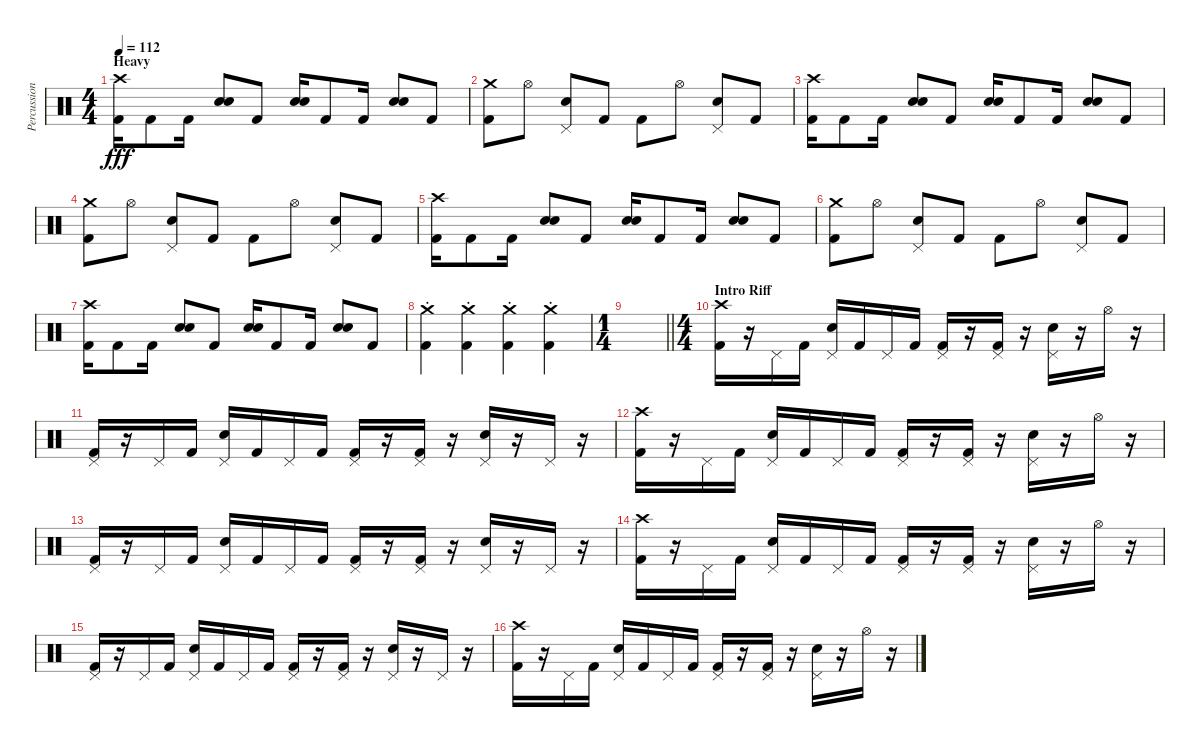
\track ("Percussion" "Percussion") {instrument percussion}
\staff {score}
\articulation defaults
\ts (4 4)
\section ("" "Heavy")
\tempo 112
\clef neutral
\ks c
("Crash high (hit)" "Kick (hit) 2").16{dy fff} "Kick (hit) 2".8 "Kick (hit) 2".16 ("Electric Snare (hit)" "Electric Snare (hit)").8 "Kick (hit) 2".8 ("Electric Snare (hit)" "Electric Snare (hit)").16 "Kick (hit) 2".8 "Kick (hit) 2".16 ("Electric Snare (hit)" "Electric Snare (hit)").8 "Kick (hit) 2".8 |
("Crash medium (hit)" "Kick (hit) 2").8 "Hi-Hat (open)".8 ("Pedal Hi-Hat (hit)" "Electric Snare (hit)").8 "Kick (hit) 2".8 "Kick (hit) 2".8 "Hi-Hat (open)".8 ("Pedal Hi-Hat (hit)" "Electric Snare (hit)").8 "Kick (hit) 2".8 |
("Crash high (hit)" "Kick (hit) 2").16 "Kick (hit) 2".8 "Kick (hit) 2".16 ("Electric Snare (hit)" "Electric Snare (hit)").8 "Kick (hit) 2".8 ("Electric Snare (hit)" "Electric Snare (hit)").16 "Kick (hit) 2".8 "Kick (hit) 2".16 ("Electric Snare (hit)" "Electric Snare (hit)").8 "Kick (hit) 2".8 |
("Crash medium (hit)" "Kick (hit) 2").8 "Hi-Hat (open)".8 ("Pedal Hi-Hat (hit)" "Electric Snare (hit)").8 "Kick (hit) 2".8 "Kick (hit) 2".8 "Hi-Hat (open)".8 ("Pedal Hi-Hat (hit)" "Electric Snare (hit)").8 "Kick (hit) 2".8 |
("Crash high (hit)" "Kick (hit) 2").16 "Kick (hit) 2".8 "Kick (hit) 2".16 ("Electric Snare (hit)" "Electric Snare (hit)").8 "Kick (hit) 2".8 ("Electric Snare (hit)" "Electric Snare (hit)").16 "Kick (hit) 2".8 "Kick (hit) 2".16 ("Electric Snare (hit)" "Electric Snare (hit)").8 "Kick (hit) 2".8 |
("Crash medium (hit)" "Kick (hit) 2").8 "Hi-Hat (open)".8 ("Pedal Hi-Hat (hit)" "Electric Snare (hit)").8 "Kick (hit) 2".8 "Kick (hit) 2".8 "Hi-Hat (open)".8 ("Pedal Hi-Hat (hit)" "Electric Snare (hit)").8 "Kick (hit) 2".8 |
("Crash high (hit)" "Kick (hit) 2").16 "Kick (hit) 2".8 "Kick (hit) 2".16 ("Electric Snare (hit)" "Electric Snare (hit)").8 "Kick (hit) 2".8 ("Electric Snare (hit)" "Electric Snare (hit)").16 "Kick (hit) 2".8 "Kick (hit) 2".16 ("Electric Snare (hit)" "Electric Snare (hit)").8 "Kick (hit) 2".8 |
("Crash medium (hit)"{st} "Kick (hit) 2"{st}).4 ("Crash medium (hit)"{st} "Kick (hit) 2"{st}).4 ("Crash medium (hit)"{st} "Kick (hit) 2"{st}).4 ("Crash medium (hit)"{st} "Kick (hit) 2"{st}).4 |
\ts (1 4)
\barLineRight lightlight
|
\ts (4 4)
\section ("" "Intro Riff")
("Crash high (hit)" "Kick (hit) 2").16 r.16 "Pedal Hi-Hat (hit)".16 "Kick (hit) 2".16 ("Pedal Hi-Hat (hit)" "Electric Snare (hit)").16 "Kick (hit) 2".16 "Pedal Hi-Hat (hit)".16 "Kick (hit) 2".16 ("Pedal Hi-Hat (hit)" "Kick (hit) 2").16 r.16 ("Pedal Hi-Hat (hit)" "Kick (hit) 2").16 r.16 ("Pedal Hi-Hat (hit)" "Electric Snare (hit)").16 r.16 "Hi-Hat (open)".16 r.16 |
("Pedal Hi-Hat (hit)" "Kick (hit) 2").16 r.16 "Pedal Hi-Hat (hit)".16 "Kick (hit) 2".16 ("Pedal Hi-Hat (hit)" "Electric Snare (hit)").16 "Kick (hit) 2".16 "Pedal Hi-Hat (hit)".16 "Kick (hit) 2".16 ("Pedal Hi-Hat (hit)" "Kick (hit) 2").16 r.16 ("Pedal Hi-Hat (hit)" "Kick (hit) 2").16 r.16 ("Pedal Hi-Hat (hit)" "Electric Snare (hit)").16 r.16 "Pedal Hi-Hat (hit)".16 r.16 |
("Crash high (hit)" "Kick (hit) 2").16 r.16 "Pedal Hi-Hat (hit)".16 "Kick (hit) 2".16 ("Pedal Hi-Hat (hit)" "Electric Snare (hit)").16 "Kick (hit) 2".16 "Pedal Hi-Hat (hit)".16 "Kick (hit) 2".16 ("Pedal Hi-Hat (hit)" "Kick (hit) 2").16 r.16 ("Pedal Hi-Hat (hit)" "Kick (hit) 2").16 r.16 ("Pedal Hi-Hat (hit)" "Electric Snare (hit)").16 r.16 "Hi-Hat (open)".16 r.16 |
("Pedal Hi-Hat (hit)" "Kick (hit) 2").16 r.16 "Pedal Hi-Hat (hit)".16 "Kick (hit) 2".16 ("Pedal Hi-Hat (hit)" "Electric Snare (hit)").16 "Kick (hit) 2".16 "Pedal Hi-Hat (hit)".16 "Kick (hit) 2".16 ("Pedal Hi-Hat (hit)" "Kick (hit) 2").16 r.16 ("Pedal Hi-Hat (hit)" "Kick (hit) 2").16 r.16 ("Pedal Hi-Hat (hit)" "Electric Snare (hit)").16 r.16 "Pedal Hi-Hat (hit)".16 r.16 |
("Crash high (hit)" "Kick (hit) 2").16 r.16 "Pedal Hi-Hat (hit)".16 "Kick (hit) 2".16 ("Pedal Hi-Hat (hit)" "Electric Snare (hit)").16 "Kick (hit) 2".16 "Pedal Hi-Hat (hit)".16 "Kick (hit) 2".16 ("Pedal Hi-Hat (hit)" "Kick (hit) 2").16 r.16 ("Pedal Hi-Hat (hit)" "Kick (hit) 2").16 r.16 ("Pedal Hi-Hat (hit)" "Electric Snare (hit)").16 r.16 "Hi-Hat (open)".16 r.16 |
("Pedal Hi-Hat (hit)" "Kick (hit) 2").16 r.16 "Pedal Hi-Hat (hit)".16 "Kick (hit) 2".16 ("Pedal Hi-Hat (hit)" "Electric Snare (hit)").16 "Kick (hit) 2".16 "Pedal Hi-Hat (hit)".16 "Kick (hit) 2".16 ("Pedal Hi-Hat (hit)" "Kick (hit) 2").16 r.16 ("Pedal Hi-Hat (hit)" "Kick (hit) 2").16 r.16 ("Pedal Hi-Hat (hit)" "Electric Snare (hit)").16 r.16 "Pedal Hi-Hat (hit)".16 r.16 |
("Crash high (hit)" "Kick (hit) 2").16 r.16 "Pedal Hi-Hat (hit)".16 "Kick (hit) 2".16 ("Pedal Hi-Hat (hit)" "Electric Snare (hit)").16 "Kick (hit) 2".16 "Pedal Hi-Hat (hit)".16 "Kick (hit) 2".16 ("Pedal Hi-Hat (hit)" "Kick (hit) 2").16 r.16 ("Pedal Hi-Hat (hit)" "Kick (hit) 2").16 r.16 ("Pedal Hi-Hat (hit)" "Electric Snare (hit)").16 r.16 "Hi-Hat (open)".16 r.16
